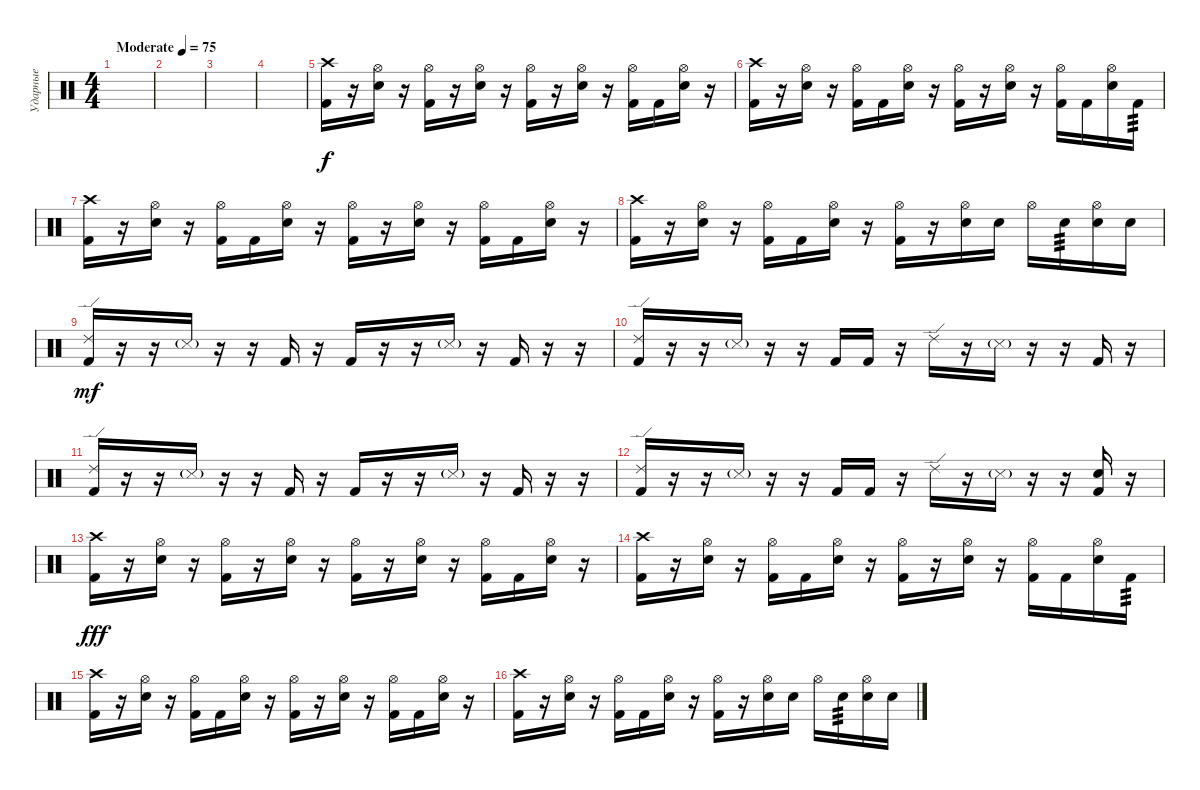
\track ("Ударные" "Ударные") {instrument percussion}
\staff {score}
\articulation defaults
\ts (4 4)
\tempo (75 "Moderate")
\clef neutral
\ks c
|
|
|
|
("Crash high (hit)" "Kick (hit) 2").16 r.16 ("Hi-Hat (open)" "Snare (hit) 2").16 r.16 ("Hi-Hat (open)" "Kick (hit) 2").16 r.16 ("Hi-Hat (open)" "Snare (hit) 2").16 r.16 ("Hi-Hat (open)" "Kick (hit) 2").16 r.16 ("Hi-Hat (open)" "Snare (hit) 2").16 r.16 ("Hi-Hat (open)" "Kick (hit) 2").16 "Kick (hit) 2".16 ("Hi-Hat (open)" "Snare (hit) 2").16 r.16 |
("Crash high (hit)" "Kick (hit) 2").16 r.16 ("Hi-Hat (open)" "Snare (hit) 2").16 r.16 ("Hi-Hat (open)" "Kick (hit) 2").16 "Kick (hit) 2".16 ("Hi-Hat (open)" "Snare (hit) 2").16 r.16 ("Hi-Hat (open)" "Kick (hit) 2").16 r.16 ("Hi-Hat (open)" "Snare (hit) 2").16 r.16 ("Hi-Hat (open)" "Kick (hit) 2").16 "Kick (hit) 2".16 ("Hi-Hat (open)" "Snare (hit) 2").16 "Kick (hit) 2".16{tp 3} |
("Crash high (hit)" "Kick (hit) 2").16 r.16 ("Hi-Hat (open)" "Snare (hit) 2").16 r.16 ("Hi-Hat (open)" "Kick (hit) 2").16 "Kick (hit) 2".16 ("Hi-Hat (open)" "Snare (hit) 2").16 r.16 ("Hi-Hat (open)" "Kick (hit) 2").16 r.16 ("Hi-Hat (open)" "Snare (hit) 2").16 r.16 ("Hi-Hat (open)" "Kick (hit) 2").16 "Kick (hit) 2".16 ("Hi-Hat (open)" "Snare (hit) 2").16 r.16 |
("Crash high (hit)" "Kick (hit) 2").16 r.16 ("Hi-Hat (open)" "Snare (hit) 2").16 r.16 ("Hi-Hat (open)" "Kick (hit) 2").16 "Kick (hit) 2".16 ("Hi-Hat (open)" "Snare (hit) 2").16 r.16 ("Hi-Hat (open)" "Kick (hit) 2").16 r.16 ("Hi-Hat (open)" "Snare (hit) 2").16 "Snare (hit) 2".16 "Hi-Hat (open)".16 "Snare (hit) 2".16{tp 3} ("Hi-Hat (open)" "Snare (hit) 2").16 "Snare (hit) 2".16 |
("Ride (edge) 2" "Kick (hit) 2").16{dy mf} r.16 r.16 "Snare (side stick) 3"{g}.16 r.16 r.16 "Kick (hit) 2".16 r.16 "Kick (hit) 2".16 r.16 r.16 "Snare (side stick) 3"{g}.16 r.16 "Kick (hit) 2".16 r.16 r.16 |
("Ride (edge) 2" "Kick (hit) 2").16 r.16 r.16 "Snare (side stick) 3"{g}.16 r.16 r.16 "Kick (hit) 2".16 "Kick (hit) 2".16 r.16 "Ride (edge) 2".16 r.16 "Snare (side stick) 3"{g}.16 r.16 r.16 "Kick (hit) 2".16 r.16 |
("Ride (edge) 2" "Kick (hit) 2").16 r.16 r.16 "Snare (side stick) 3"{g}.16 r.16 r.16 "Kick (hit) 2".16 r.16 "Kick (hit) 2".16 r.16 r.16 "Snare (side stick) 3"{g}.16 r.16 "Kick (hit) 2".16 r.16 r.16 |
("Ride (edge) 2" "Kick (hit) 2").16 r.16 r.16 "Snare (side stick) 3"{g}.16 r.16 r.16 "Kick (hit) 2".16 "Kick (hit) 2".16 r.16 "Ride (edge) 2".16 r.16 "Snare (side stick) 3"{g}.16 r.16 r.16 ("Snare (hit) 2" "Kick (hit) 2").16 r.16 |
("Crash high (hit)" "Kick (hit) 2").16{dy fff} r.16 ("Hi-Hat (open)" "Snare (hit) 2").16 r.16 ("Hi-Hat (open)" "Kick (hit) 2").16 r.16 ("Hi-Hat (open)" "Snare (hit) 2").16 r.16 ("Hi-Hat (open)" "Kick (hit) 2").16 r.16 ("Hi-Hat (open)" "Snare (hit) 2").16 r.16 ("Hi-Hat (open)" "Kick (hit) 2").16 "Kick (hit) 2".16 ("Hi-Hat (open)" "Snare (hit) 2").16 r.16 |
("Crash high (hit)" "Kick (hit) 2").16 r.16 ("Hi-Hat (open)" "Snare (hit) 2").16 r.16 ("Hi-Hat (open)" "Kick (hit) 2").16 "Kick (hit) 2".16 ("Hi-Hat (open)" "Snare (hit) 2").16 r.16 ("Hi-Hat (open)" "Kick (hit) 2").16 r.16 ("Hi-Hat (open)" "Snare (hit) 2").16 r.16 ("Hi-Hat (open)" "Kick (hit) 2").16 "Kick (hit) 2".16 ("Hi-Hat (open)" "Snare (hit) 2").16 "Kick (hit) 2".16{tp 3} |
("Crash high (hit)" "Kick (hit) 2").16 r.16 ("Hi-Hat (open)" "Snare (hit) 2").16 r.16 ("Hi-Hat (open)" "Kick (hit) 2").16 "Kick (hit) 2".16 ("Hi-Hat (open)" "Snare (hit) 2").16 r.16 ("Hi-Hat (open)" "Kick (hit) 2").16 r.16 ("Hi-Hat (open)" "Snare (hit) 2").16 r.16 ("Hi-Hat (open)" "Kick (hit) 2").16 "Kick (hit) 2".16 ("Hi-Hat (open)" "Snare (hit) 2").16 r.16 |
("Crash high (hit)" "Kick (hit) 2").16 r.16 ("Hi-Hat (open)" "Snare (hit) 2").16 r.16 ("Hi-Hat (open)" "Kick (hit) 2").16 "Kick (hit) 2".16 ("Hi-Hat (open)" "Snare (hit) 2").16 r.16 ("Hi-Hat (open)" "Kick (hit) 2").16 r.16 ("Hi-Hat (open)" "Snare (hit) 2").16 "Snare (hit) 2".16 "Hi-Hat (open)".16 "Snare (hit) 2".16{tp 3} ("Hi-Hat (open)" "Snare (hit) 2").16 "Snare (hit) 2".16
